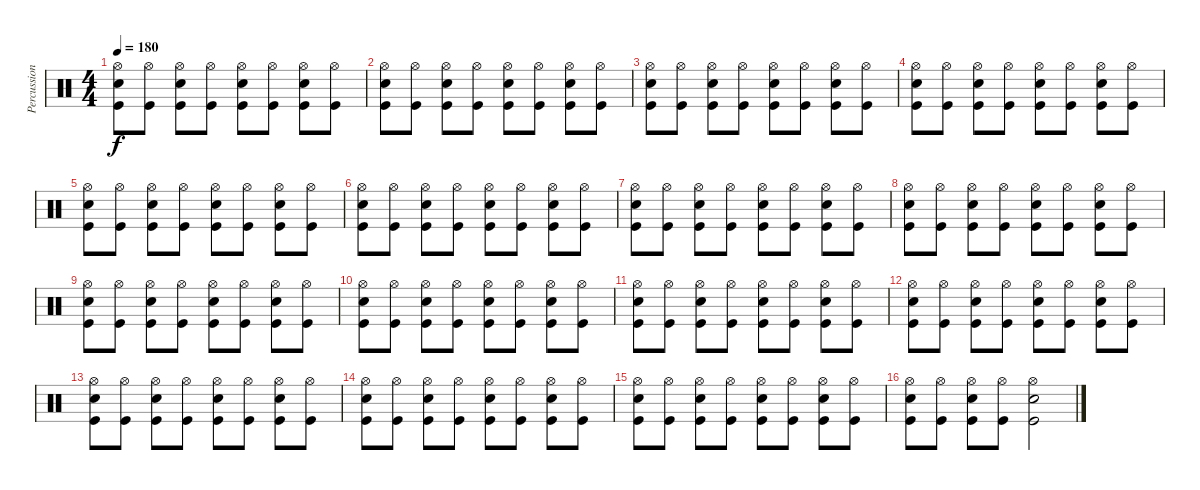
\track ("Percussion" "Percussion") {instrument percussion}
\staff {score}
\articulation defaults
\ts (4 4)
\tempo 180
\clef neutral
\ks c
("Hi-Hat (open)" "Snare (hit) 2" "Kick (hit)").8{dy f} ("Hi-Hat (open)" "Kick (hit)").8 ("Hi-Hat (open)" "Snare (hit) 2" "Kick (hit)").8 ("Hi-Hat (open)" "Kick (hit)").8 ("Hi-Hat (open)" "Snare (hit) 2" "Kick (hit)").8 ("Hi-Hat (open)" "Kick (hit)").8 ("Hi-Hat (open)" "Snare (hit) 2" "Kick (hit)").8 ("Hi-Hat (open)" "Kick (hit)").8 |
("Hi-Hat (open)" "Snare (hit) 2" "Kick (hit)").8 ("Hi-Hat (open)" "Kick (hit)").8 ("Hi-Hat (open)" "Snare (hit) 2" "Kick (hit)").8 ("Hi-Hat (open)" "Kick (hit)").8 ("Hi-Hat (open)" "Snare (hit) 2" "Kick (hit)").8 ("Hi-Hat (open)" "Kick (hit)").8 ("Hi-Hat (open)" "Snare (hit) 2" "Kick (hit)").8 ("Hi-Hat (open)" "Kick (hit)").8 |
("Hi-Hat (open)" "Snare (hit) 2" "Kick (hit)").8 ("Hi-Hat (open)" "Kick (hit)").8 ("Hi-Hat (open)" "Snare (hit) 2" "Kick (hit)").8 ("Hi-Hat (open)" "Kick (hit)").8 ("Hi-Hat (open)" "Snare (hit) 2" "Kick (hit)").8 ("Hi-Hat (open)" "Kick (hit)").8 ("Hi-Hat (open)" "Snare (hit) 2" "Kick (hit)").8 ("Hi-Hat (open)" "Kick (hit)").8 |
("Hi-Hat (open)" "Snare (hit) 2" "Kick (hit)").8 ("Hi-Hat (open)" "Kick (hit)").8 ("Hi-Hat (open)" "Snare (hit) 2" "Kick (hit)").8 ("Hi-Hat (open)" "Kick (hit)").8 ("Hi-Hat (open)" "Snare (hit) 2" "Kick (hit)").8 ("Hi-Hat (open)" "Kick (hit)").8 ("Hi-Hat (open)" "Snare (hit) 2" "Kick (hit)").8 ("Hi-Hat (open)" "Kick (hit)").8 |
("Hi-Hat (open)" "Snare (hit) 2" "Kick (hit)").8 ("Hi-Hat (open)" "Kick (hit)").8 ("Hi-Hat (open)" "Snare (hit) 2" "Kick (hit)").8 ("Hi-Hat (open)" "Kick (hit)").8 ("Hi-Hat (open)" "Snare (hit) 2" "Kick (hit)").8 ("Hi-Hat (open)" "Kick (hit)").8 ("Hi-Hat (open)" "Snare (hit) 2" "Kick (hit)").8 ("Hi-Hat (open)" "Kick (hit)").8 |
("Hi-Hat (open)" "Snare (hit) 2" "Kick (hit)").8 ("Hi-Hat (open)" "Kick (hit)").8 ("Hi-Hat (open)" "Snare (hit) 2" "Kick (hit)").8 ("Hi-Hat (open)" "Kick (hit)").8 ("Hi-Hat (open)" "Snare (hit) 2" "Kick (hit)").8 ("Hi-Hat (open)" "Kick (hit)").8 ("Hi-Hat (open)" "Snare (hit) 2" "Kick (hit)").8 ("Hi-Hat (open)" "Kick (hit)").8 |
("Hi-Hat (open)" "Snare (hit) 2" "Kick (hit)").8 ("Hi-Hat (open)" "Kick (hit)").8 ("Hi-Hat (open)" "Snare (hit) 2" "Kick (hit)").8 ("Hi-Hat (open)" "Kick (hit)").8 ("Hi-Hat (open)" "Snare (hit) 2" "Kick (hit)").8 ("Hi-Hat (open)" "Kick (hit)").8 ("Hi-Hat (open)" "Snare (hit) 2" "Kick (hit)").8 ("Hi-Hat (open)" "Kick (hit)").8 |
("Hi-Hat (open)" "Snare (hit) 2" "Kick (hit)").8 ("Hi-Hat (open)" "Kick (hit)").8 ("Hi-Hat (open)" "Snare (hit) 2" "Kick (hit)").8 ("Hi-Hat (open)" "Kick (hit)").8 ("Hi-Hat (open)" "Snare (hit) 2" "Kick (hit)").8 ("Hi-Hat (open)" "Kick (hit)").8 ("Hi-Hat (open)" "Snare (hit) 2" "Kick (hit)").8 ("Hi-Hat (open)" "Kick (hit)").8 |
("Hi-Hat (open)" "Snare (hit) 2" "Kick (hit)").8 ("Hi-Hat (open)" "Kick (hit)").8 ("Hi-Hat (open)" "Snare (hit) 2" "Kick (hit)").8 ("Hi-Hat (open)" "Kick (hit)").8 ("Hi-Hat (open)" "Snare (hit) 2" "Kick (hit)").8 ("Hi-Hat (open)" "Kick (hit)").8 ("Hi-Hat (open)" "Snare (hit) 2" "Kick (hit)").8 ("Hi-Hat (open)" "Kick (hit)").8 |
("Hi-Hat (open)" "Snare (hit) 2" "Kick (hit)").8 ("Hi-Hat (open)" "Kick (hit)").8 ("Hi-Hat (open)" "Snare (hit) 2" "Kick (hit)").8 ("Hi-Hat (open)" "Kick (hit)").8 ("Hi-Hat (open)" "Snare (hit) 2" "Kick (hit)").8 ("Hi-Hat (open)" "Kick (hit)").8 ("Hi-Hat (open)" "Snare (hit) 2" "Kick (hit)").8 ("Hi-Hat (open)" "Kick (hit)").8 |
("Hi-Hat (open)" "Snare (hit) 2" "Kick (hit)").8 ("Hi-Hat (open)" "Kick (hit)").8 ("Hi-Hat (open)" "Snare (hit) 2" "Kick (hit)").8 ("Hi-Hat (open)" "Kick (hit)").8 ("Hi-Hat (open)" "Snare (hit) 2" "Kick (hit)").8 ("Hi-Hat (open)" "Kick (hit)").8 ("Hi-Hat (open)" "Snare (hit) 2" "Kick (hit)").8 ("Hi-Hat (open)" "Kick (hit)").8 |
("Hi-Hat (open)" "Snare (hit) 2" "Kick (hit)").8 ("Hi-Hat (open)" "Kick (hit)").8 ("Hi-Hat (open)" "Snare (hit) 2" "Kick (hit)").8 ("Hi-Hat (open)" "Kick (hit)").8 ("Hi-Hat (open)" "Snare (hit) 2" "Kick (hit)").8 ("Hi-Hat (open)" "Kick (hit)").8 ("Hi-Hat (open)" "Snare (hit) 2" "Kick (hit)").8 ("Hi-Hat (open)" "Kick (hit)").8 |
("Hi-Hat (open)" "Snare (hit) 2" "Kick (hit)").8 ("Hi-Hat (open)" "Kick (hit)").8 ("Hi-Hat (open)" "Snare (hit) 2" "Kick (hit)").8 ("Hi-Hat (open)" "Kick (hit)").8 ("Hi-Hat (open)" "Snare (hit) 2" "Kick (hit)").8 ("Hi-Hat (open)" "Kick (hit)").8 ("Hi-Hat (open)" "Snare (hit) 2" "Kick (hit)").8 ("Hi-Hat (open)" "Kick (hit)").8 |
("Hi-Hat (open)" "Snare (hit) 2" "Kick (hit)").8 ("Hi-Hat (open)" "Kick (hit)").8 ("Hi-Hat (open)" "Snare (hit) 2" "Kick (hit)").8 ("Hi-Hat (open)" "Kick (hit)").8 ("Hi-Hat (open)" "Snare (hit) 2" "Kick (hit)").8 ("Hi-Hat (open)" "Kick (hit)").8 ("Hi-Hat (open)" "Snare (hit) 2" "Kick (hit)").8 ("Hi-Hat (open)" "Kick (hit)").8 |
("Hi-Hat (open)" "Snare (hit) 2" "Kick (hit)").8 ("Hi-Hat (open)" "Kick (hit)").8 ("Hi-Hat (open)" "Snare (hit) 2" "Kick (hit)").8 ("Hi-Hat (open)" "Kick (hit)").8 ("Hi-Hat (open)" "Snare (hit) 2" "Kick (hit)").8 ("Hi-Hat (open)" "Kick (hit)").8 ("Hi-Hat (open)" "Snare (hit) 2" "Kick (hit)").8 ("Hi-Hat (open)" "Kick (hit)").8 |
("Hi-Hat (open)" "Snare (hit) 2" "Kick (hit)").8 ("Hi-Hat (open)" "Kick (hit)").8 ("Hi-Hat (open)" "Snare (hit) 2" "Kick (hit)").8 ("Hi-Hat (open)" "Kick (hit)").8 ("Hi-Hat (open)" "Snare (hit) 2" "Kick (hit)").2
